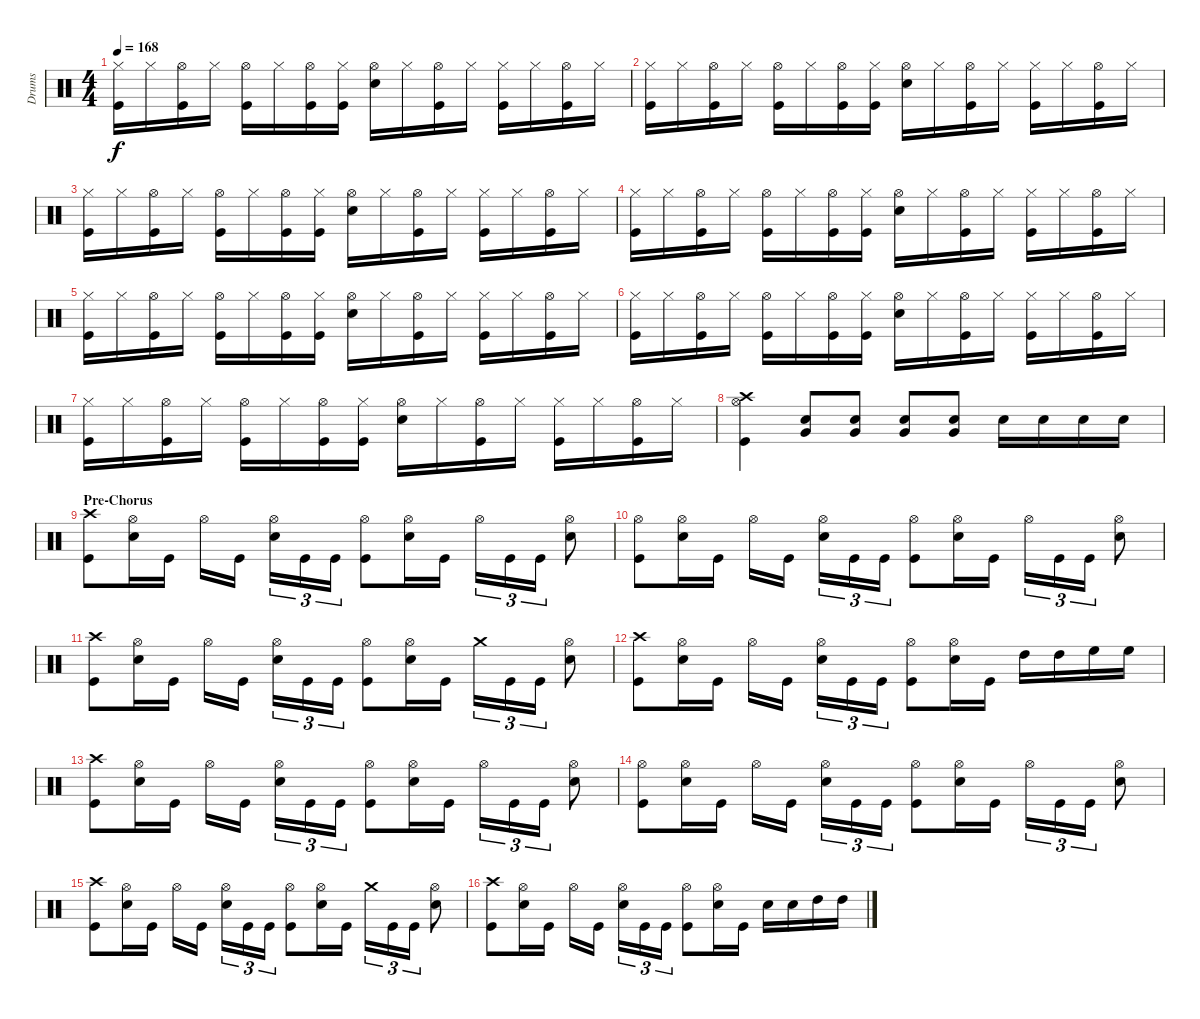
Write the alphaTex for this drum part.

\track ("Drums" "Drums") {instrument percussion}
\staff {score}
\articulation defaults
\ts (4 4)
\tempo 168
\clef neutral
\ks c
("Hi-Hat (closed)" "Kick (hit)").16{dy f} "Hi-Hat (closed)".16 ("Hi-Hat (open)" "Kick (hit)").16 "Hi-Hat (closed)".16 ("Hi-Hat (open)" "Kick (hit)").16 "Hi-Hat (closed)".16 ("Hi-Hat (open)" "Kick (hit)").16 ("Hi-Hat (closed)" "Kick (hit)").16 ("Hi-Hat (open)" "Electric Snare (hit)").16 "Hi-Hat (closed)".16 ("Hi-Hat (open)" "Kick (hit)").16 "Hi-Hat (closed)".16 ("Hi-Hat (closed)" "Kick (hit)").16 "Hi-Hat (closed)".16 ("Hi-Hat (open)" "Kick (hit)").16 "Hi-Hat (closed)".16 |
("Hi-Hat (closed)" "Kick (hit)").16 "Hi-Hat (closed)".16 ("Hi-Hat (open)" "Kick (hit)").16 "Hi-Hat (closed)".16 ("Hi-Hat (open)" "Kick (hit)").16 "Hi-Hat (closed)".16 ("Hi-Hat (open)" "Kick (hit)").16 ("Hi-Hat (closed)" "Kick (hit)").16 ("Hi-Hat (open)" "Electric Snare (hit)").16 "Hi-Hat (closed)".16 ("Hi-Hat (open)" "Kick (hit)").16 "Hi-Hat (closed)".16 ("Hi-Hat (closed)" "Kick (hit)").16 "Hi-Hat (closed)".16 ("Hi-Hat (open)" "Kick (hit)").16 "Hi-Hat (closed)".16 |
("Hi-Hat (closed)" "Kick (hit)").16 "Hi-Hat (closed)".16 ("Hi-Hat (open)" "Kick (hit)").16 "Hi-Hat (closed)".16 ("Hi-Hat (open)" "Kick (hit)").16 "Hi-Hat (closed)".16 ("Hi-Hat (open)" "Kick (hit)").16 ("Hi-Hat (closed)" "Kick (hit)").16 ("Hi-Hat (open)" "Electric Snare (hit)").16 "Hi-Hat (closed)".16 ("Hi-Hat (open)" "Kick (hit)").16 "Hi-Hat (closed)".16 ("Hi-Hat (closed)" "Kick (hit)").16 "Hi-Hat (closed)".16 ("Hi-Hat (open)" "Kick (hit)").16 "Hi-Hat (closed)".16 |
("Hi-Hat (closed)" "Kick (hit)").16 "Hi-Hat (closed)".16 ("Hi-Hat (open)" "Kick (hit)").16 "Hi-Hat (closed)".16 ("Hi-Hat (open)" "Kick (hit)").16 "Hi-Hat (closed)".16 ("Hi-Hat (open)" "Kick (hit)").16 ("Hi-Hat (closed)" "Kick (hit)").16 ("Hi-Hat (open)" "Electric Snare (hit)").16 "Hi-Hat (closed)".16 ("Hi-Hat (open)" "Kick (hit)").16 "Hi-Hat (closed)".16 ("Hi-Hat (closed)" "Kick (hit)").16 "Hi-Hat (closed)".16 ("Hi-Hat (open)" "Kick (hit)").16 "Hi-Hat (closed)".16 |
("Hi-Hat (closed)" "Kick (hit)").16 "Hi-Hat (closed)".16 ("Hi-Hat (open)" "Kick (hit)").16 "Hi-Hat (closed)".16 ("Hi-Hat (open)" "Kick (hit)").16 "Hi-Hat (closed)".16 ("Hi-Hat (open)" "Kick (hit)").16 ("Hi-Hat (closed)" "Kick (hit)").16 ("Hi-Hat (open)" "Electric Snare (hit)").16 "Hi-Hat (closed)".16 ("Hi-Hat (open)" "Kick (hit)").16 "Hi-Hat (closed)".16 ("Hi-Hat (closed)" "Kick (hit)").16 "Hi-Hat (closed)".16 ("Hi-Hat (open)" "Kick (hit)").16 "Hi-Hat (closed)".16 |
("Hi-Hat (closed)" "Kick (hit)").16 "Hi-Hat (closed)".16 ("Hi-Hat (open)" "Kick (hit)").16 "Hi-Hat (closed)".16 ("Hi-Hat (open)" "Kick (hit)").16 "Hi-Hat (closed)".16 ("Hi-Hat (open)" "Kick (hit)").16 ("Hi-Hat (closed)" "Kick (hit)").16 ("Hi-Hat (open)" "Electric Snare (hit)").16 "Hi-Hat (closed)".16 ("Hi-Hat (open)" "Kick (hit)").16 "Hi-Hat (closed)".16 ("Hi-Hat (closed)" "Kick (hit)").16 "Hi-Hat (closed)".16 ("Hi-Hat (open)" "Kick (hit)").16 "Hi-Hat (closed)".16 |
("Hi-Hat (closed)" "Kick (hit)").16 "Hi-Hat (closed)".16 ("Hi-Hat (open)" "Kick (hit)").16 "Hi-Hat (closed)".16 ("Hi-Hat (open)" "Kick (hit)").16 "Hi-Hat (closed)".16 ("Hi-Hat (open)" "Kick (hit)").16 ("Hi-Hat (closed)" "Kick (hit)").16 ("Hi-Hat (open)" "Electric Snare (hit)").16 "Hi-Hat (closed)".16 ("Hi-Hat (open)" "Kick (hit)").16 "Hi-Hat (closed)".16 ("Hi-Hat (closed)" "Kick (hit)").16 "Hi-Hat (closed)".16 ("Hi-Hat (open)" "Kick (hit)").16 "Hi-Hat (closed)".16 |
("Hi-Hat (open)" "Crash high (hit)" "Kick (hit)").4 ("Electric Snare (hit)" "Very Low Tom (hit)").8 ("Electric Snare (hit)" "Very Low Tom (hit)").8 ("Electric Snare (hit)" "Very Low Tom (hit)").8 ("Electric Snare (hit)" "Very Low Tom (hit)").8 "Electric Snare (hit)".16 "Electric Snare (hit)".16 "Electric Snare (hit)".16 "Electric Snare (hit)".16 |
\section ("" "Pre-Chorus")
("Crash high (hit)" "Kick (hit)").8 ("Hi-Hat (open)" "Electric Snare (hit)").16 "Kick (hit)".16 "Hi-Hat (open)".16 "Kick (hit)".16 ("Hi-Hat (open)" "Electric Snare (hit)").16{tu (3 2)} "Kick (hit)".16{tu (3 2)} "Kick (hit)".16{tu (3 2)} ("Hi-Hat (open)" "Kick (hit)").8 ("Hi-Hat (open)" "Electric Snare (hit)").16 "Kick (hit)".16 "Hi-Hat (open)".16{tu (3 2)} "Kick (hit)".16{tu (3 2)} "Kick (hit)".16{tu (3 2)} ("Hi-Hat (open)" "Electric Snare (hit)").8 |
("Hi-Hat (open)" "Kick (hit)").8 ("Hi-Hat (open)" "Electric Snare (hit)").16 "Kick (hit)".16 "Hi-Hat (open)".16 "Kick (hit)".16 ("Hi-Hat (open)" "Electric Snare (hit)").16{tu (3 2)} "Kick (hit)".16{tu (3 2)} "Kick (hit)".16{tu (3 2)} ("Hi-Hat (open)" "Kick (hit)").8 ("Hi-Hat (open)" "Electric Snare (hit)").16 "Kick (hit)".16 "Hi-Hat (open)".16{tu (3 2)} "Kick (hit)".16{tu (3 2)} "Kick (hit)".16{tu (3 2)} ("Hi-Hat (open)" "Electric Snare (hit)").8 |
("Crash high (hit)" "Kick (hit)").8 ("Hi-Hat (open)" "Electric Snare (hit)").16 "Kick (hit)".16 "Hi-Hat (open)".16 "Kick (hit)".16 ("Hi-Hat (open)" "Electric Snare (hit)").16{tu (3 2)} "Kick (hit)".16{tu (3 2)} "Kick (hit)".16{tu (3 2)} ("Hi-Hat (open)" "Kick (hit)").8 ("Hi-Hat (open)" "Electric Snare (hit)").16 "Kick (hit)".16 "Crash medium (hit)".16{tu (3 2)} "Kick (hit)".16{tu (3 2)} "Kick (hit)".16{tu (3 2)} ("Hi-Hat (open)" "Electric Snare (hit)").8 |
("Crash high (hit)" "Kick (hit)").8 ("Hi-Hat (open)" "Electric Snare (hit)").16 "Kick (hit)".16 "Hi-Hat (open)".16 "Kick (hit)".16 ("Hi-Hat (open)" "Electric Snare (hit)").16{tu (3 2)} "Kick (hit)".16{tu (3 2)} "Kick (hit)".16{tu (3 2)} ("Hi-Hat (open)" "Kick (hit)").8 ("Hi-Hat (open)" "Electric Snare (hit)").16 "Kick (hit)".16 "High Tom (hit)".16 "High Tom (hit)".16 "High Floor Tom (hit)".16 "High Floor Tom (hit)".16 |
("Crash high (hit)" "Kick (hit)").8 ("Hi-Hat (open)" "Electric Snare (hit)").16 "Kick (hit)".16 "Hi-Hat (open)".16 "Kick (hit)".16 ("Hi-Hat (open)" "Electric Snare (hit)").16{tu (3 2)} "Kick (hit)".16{tu (3 2)} "Kick (hit)".16{tu (3 2)} ("Hi-Hat (open)" "Kick (hit)").8 ("Hi-Hat (open)" "Electric Snare (hit)").16 "Kick (hit)".16 "Hi-Hat (open)".16{tu (3 2)} "Kick (hit)".16{tu (3 2)} "Kick (hit)".16{tu (3 2)} ("Hi-Hat (open)" "Electric Snare (hit)").8 |
("Hi-Hat (open)" "Kick (hit)").8 ("Hi-Hat (open)" "Electric Snare (hit)").16 "Kick (hit)".16 "Hi-Hat (open)".16 "Kick (hit)".16 ("Hi-Hat (open)" "Electric Snare (hit)").16{tu (3 2)} "Kick (hit)".16{tu (3 2)} "Kick (hit)".16{tu (3 2)} ("Hi-Hat (open)" "Kick (hit)").8 ("Hi-Hat (open)" "Electric Snare (hit)").16 "Kick (hit)".16 "Hi-Hat (open)".16{tu (3 2)} "Kick (hit)".16{tu (3 2)} "Kick (hit)".16{tu (3 2)} ("Hi-Hat (open)" "Electric Snare (hit)").8 |
("Crash high (hit)" "Kick (hit)").8 ("Hi-Hat (open)" "Electric Snare (hit)").16 "Kick (hit)".16 "Hi-Hat (open)".16 "Kick (hit)".16 ("Hi-Hat (open)" "Electric Snare (hit)").16{tu (3 2)} "Kick (hit)".16{tu (3 2)} "Kick (hit)".16{tu (3 2)} ("Hi-Hat (open)" "Kick (hit)").8 ("Hi-Hat (open)" "Electric Snare (hit)").16 "Kick (hit)".16 "Crash medium (hit)".16{tu (3 2)} "Kick (hit)".16{tu (3 2)} "Kick (hit)".16{tu (3 2)} ("Hi-Hat (open)" "Electric Snare (hit)").8 |
("Crash high (hit)" "Kick (hit)").8 ("Hi-Hat (open)" "Electric Snare (hit)").16 "Kick (hit)".16 "Hi-Hat (open)".16 "Kick (hit)".16 ("Hi-Hat (open)" "Electric Snare (hit)").16{tu (3 2)} "Kick (hit)".16{tu (3 2)} "Kick (hit)".16{tu (3 2)} ("Hi-Hat (open)" "Kick (hit)").8 ("Hi-Hat (open)" "Electric Snare (hit)").16 "Kick (hit)".16 "Electric Snare (hit)".16 "Electric Snare (hit)".16 "High Tom (hit)".16 "High Tom (hit)".16
